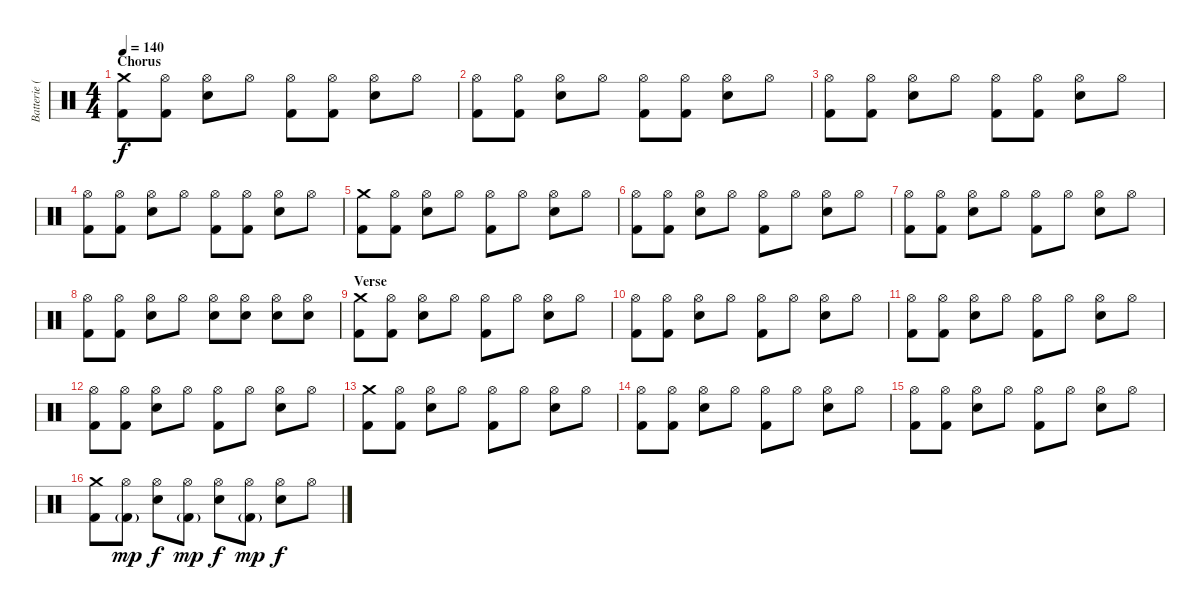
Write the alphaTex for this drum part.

\track ("Batterie (Dave)" "Batterie (") {instrument percussion}
\staff {score}
\articulation defaults
\ts (4 4)
\section ("" "Chorus")
\tempo 140
\clef neutral
\ks c
("Crash medium (hit)" "Kick (hit) 2").8{dy f} ("Hi-Hat (open)" "Kick (hit) 2").8 ("Hi-Hat (open)" "Snare (hit) 2").8 "Hi-Hat (open)".8 ("Hi-Hat (open)" "Kick (hit) 2").8 ("Hi-Hat (open)" "Kick (hit) 2").8 ("Hi-Hat (open)" "Snare (hit) 2").8 "Hi-Hat (open)".8 |
("Hi-Hat (open)" "Kick (hit) 2").8 ("Hi-Hat (open)" "Kick (hit) 2").8 ("Hi-Hat (open)" "Snare (hit) 2").8 "Hi-Hat (open)".8 ("Hi-Hat (open)" "Kick (hit) 2").8 ("Hi-Hat (open)" "Kick (hit) 2").8 ("Hi-Hat (open)" "Snare (hit) 2").8 "Hi-Hat (open)".8 |
("Hi-Hat (open)" "Kick (hit) 2").8 ("Hi-Hat (open)" "Kick (hit) 2").8 ("Hi-Hat (open)" "Snare (hit) 2").8 "Hi-Hat (open)".8 ("Hi-Hat (open)" "Kick (hit) 2").8 ("Hi-Hat (open)" "Kick (hit) 2").8 ("Hi-Hat (open)" "Snare (hit) 2").8 "Hi-Hat (open)".8 |
("Hi-Hat (open)" "Kick (hit) 2").8 ("Hi-Hat (open)" "Kick (hit) 2").8 ("Hi-Hat (open)" "Snare (hit) 2").8 "Hi-Hat (open)".8 ("Hi-Hat (open)" "Kick (hit) 2").8 ("Hi-Hat (open)" "Kick (hit) 2").8 ("Hi-Hat (open)" "Snare (hit) 2").8 "Hi-Hat (open)".8 |
("Crash medium (hit)" "Kick (hit) 2").8 ("Hi-Hat (open)" "Kick (hit) 2").8 ("Hi-Hat (open)" "Snare (hit) 2").8 "Hi-Hat (open)".8 ("Hi-Hat (open)" "Kick (hit) 2").8 "Hi-Hat (open)".8 ("Hi-Hat (open)" "Snare (hit) 2").8 "Hi-Hat (open)".8 |
("Hi-Hat (open)" "Kick (hit) 2").8 ("Hi-Hat (open)" "Kick (hit) 2").8 ("Hi-Hat (open)" "Snare (hit) 2").8 "Hi-Hat (open)".8 ("Hi-Hat (open)" "Kick (hit) 2").8 "Hi-Hat (open)".8 ("Hi-Hat (open)" "Snare (hit) 2").8 "Hi-Hat (open)".8 |
("Hi-Hat (open)" "Kick (hit) 2").8 ("Hi-Hat (open)" "Kick (hit) 2").8 ("Hi-Hat (open)" "Snare (hit) 2").8 "Hi-Hat (open)".8 ("Hi-Hat (open)" "Kick (hit) 2").8 "Hi-Hat (open)".8 ("Hi-Hat (open)" "Snare (hit) 2").8 "Hi-Hat (open)".8 |
("Hi-Hat (open)" "Kick (hit) 2").8 ("Hi-Hat (open)" "Kick (hit) 2").8 ("Hi-Hat (open)" "Snare (hit) 2").8 "Hi-Hat (open)".8 ("Hi-Hat (open)" "Electric Snare (hit)").8 ("Hi-Hat (open)" "Electric Snare (hit)").8 ("Hi-Hat (open)" "Electric Snare (hit)").8 ("Hi-Hat (open)" "Electric Snare (hit)").8 |
\section ("" "Verse")
("Crash medium (hit)" "Kick (hit) 2").8 ("Hi-Hat (open)" "Kick (hit) 2").8 ("Hi-Hat (open)" "Snare (hit) 2").8 "Hi-Hat (open)".8 ("Hi-Hat (open)" "Kick (hit) 2").8 "Hi-Hat (open)".8 ("Hi-Hat (open)" "Snare (hit) 2").8 "Hi-Hat (open)".8 |
("Hi-Hat (open)" "Kick (hit) 2").8 ("Hi-Hat (open)" "Kick (hit) 2").8 ("Hi-Hat (open)" "Snare (hit) 2").8 "Hi-Hat (open)".8 ("Hi-Hat (open)" "Kick (hit) 2").8 "Hi-Hat (open)".8 ("Hi-Hat (open)" "Snare (hit) 2").8 "Hi-Hat (open)".8 |
("Hi-Hat (open)" "Kick (hit) 2").8 ("Hi-Hat (open)" "Kick (hit) 2").8 ("Hi-Hat (open)" "Snare (hit) 2").8 "Hi-Hat (open)".8 ("Hi-Hat (open)" "Kick (hit) 2").8 "Hi-Hat (open)".8 ("Hi-Hat (open)" "Snare (hit) 2").8 "Hi-Hat (open)".8 |
("Hi-Hat (open)" "Kick (hit) 2").8 ("Hi-Hat (open)" "Kick (hit) 2").8 ("Hi-Hat (open)" "Snare (hit) 2").8 "Hi-Hat (open)".8 ("Hi-Hat (open)" "Kick (hit) 2").8 "Hi-Hat (open)".8 ("Hi-Hat (open)" "Snare (hit) 2").8 "Hi-Hat (open)".8 |
("Crash medium (hit)" "Kick (hit) 2").8 ("Hi-Hat (open)" "Kick (hit) 2").8 ("Hi-Hat (open)" "Snare (hit) 2").8 "Hi-Hat (open)".8 ("Hi-Hat (open)" "Kick (hit) 2").8 "Hi-Hat (open)".8 ("Hi-Hat (open)" "Snare (hit) 2").8 "Hi-Hat (open)".8 |
("Hi-Hat (open)" "Kick (hit) 2").8 ("Hi-Hat (open)" "Kick (hit) 2").8 ("Hi-Hat (open)" "Snare (hit) 2").8 "Hi-Hat (open)".8 ("Hi-Hat (open)" "Kick (hit) 2").8 "Hi-Hat (open)".8 ("Hi-Hat (open)" "Snare (hit) 2").8 "Hi-Hat (open)".8 |
("Hi-Hat (open)" "Kick (hit) 2").8 ("Hi-Hat (open)" "Kick (hit) 2").8 ("Hi-Hat (open)" "Snare (hit) 2").8 "Hi-Hat (open)".8 ("Hi-Hat (open)" "Kick (hit) 2").8 "Hi-Hat (open)".8 ("Hi-Hat (open)" "Snare (hit) 2").8 "Hi-Hat (open)".8 |
("Crash medium (hit)" "Kick (hit) 2").8 ("Hi-Hat (open)" "Kick (hit) 2"{g}).8{dy mp} ("Hi-Hat (open)" "Snare (hit) 2").8{dy f} ("Hi-Hat (open)" "Kick (hit) 2"{g}).8{dy mp} ("Hi-Hat (open)" "Snare (hit) 2").8{dy f} ("Hi-Hat (open)" "Kick (hit) 2"{g}).8{dy mp} ("Hi-Hat (open)" "Snare (hit) 2").8{dy f} "Hi-Hat (open)".8
